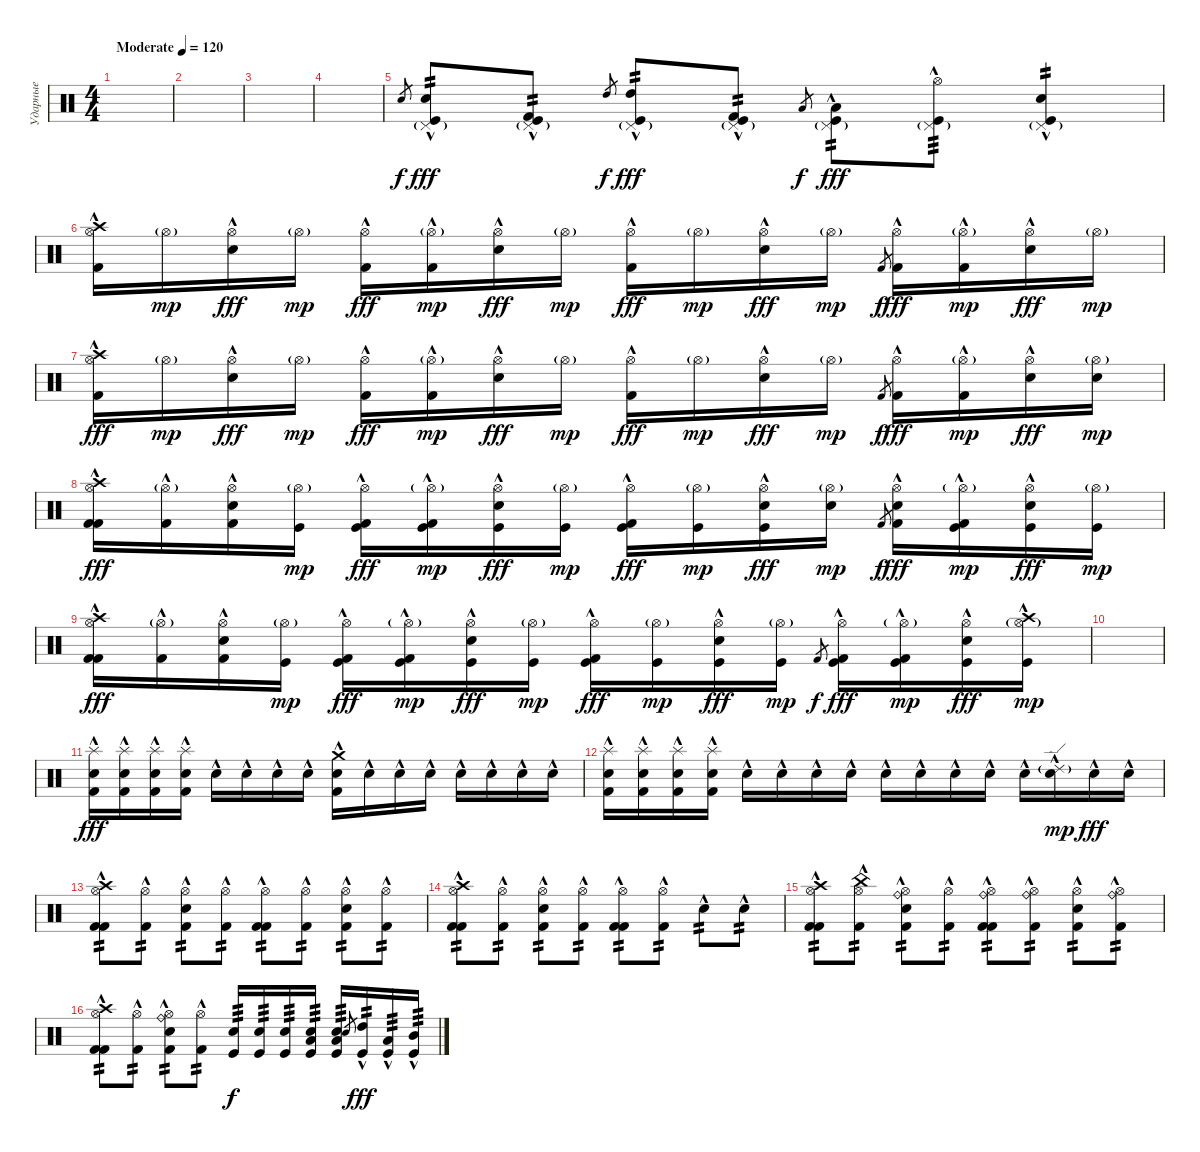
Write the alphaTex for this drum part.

\track ("Ударные" "Ударные") {instrument percussion}
\staff {score}
\articulation defaults
\ts (4 4)
\tempo (120 "Moderate")
\clef neutral
\ks c
|
|
|
|
"Electric Snare (hit)".8{gr} ("Pedal Hi-Hat (hit)"{g} "Electric Snare (hit)"{hac} "Kick (hit)").8{tp 2 dy fff} ("Pedal Hi-Hat (hit)"{g} "Kick (hit) 2"{hac} "Kick (hit)").8{tp 2} "High Tom (hit)".8{gr dy f} ("Pedal Hi-Hat (hit)"{g} "High Tom (hit)"{hac} "Kick (hit)").8{tp 2 dy fff} ("Pedal Hi-Hat (hit)"{g} "Kick (hit) 2"{hac} "Kick (hit)").8{tp 2} "Low Tom (hit)".8{gr dy f} ("Pedal Hi-Hat (hit)"{g} "Low Tom (hit)"{hac} "Kick (hit)").8{tp 2 dy fff} ("Pedal Hi-Hat (hit)"{g} "Hi-Hat (open)"{hac} "Kick (hit)").8{tp 3} ("Pedal Hi-Hat (hit)"{g} "Electric Snare (hit)"{hac} "Kick (hit)").4{tp 2} |
("Kick (hit) 2"{hac} "Crash high (hit)"{hac} "Hi-Hat (open)"{hac}).16 "Hi-Hat (open)"{g}.16{dy mp} ("Electric Snare (hit)"{hac} "Hi-Hat (open)"{hac}).16{dy fff} "Hi-Hat (open)"{g}.16{dy mp} ("Kick (hit) 2"{hac} "Hi-Hat (open)"{hac}).16{dy fff} ("Kick (hit) 2"{hac} "Hi-Hat (open)"{g}).16{dy mp} ("Electric Snare (hit)"{hac} "Hi-Hat (open)"{hac}).16{dy fff} "Hi-Hat (open)"{g}.16{dy mp} ("Kick (hit) 2"{hac} "Hi-Hat (open)"{hac}).16{dy fff} "Hi-Hat (open)"{g}.16{dy mp} ("Electric Snare (hit)"{hac} "Hi-Hat (open)"{hac}).16{dy fff} "Hi-Hat (open)"{g}.16{dy mp} "Kick (hit) 2".8{gr dy f} ("Kick (hit) 2"{hac} "Hi-Hat (open)"{hac}).16{dy fff} ("Kick (hit) 2"{hac} "Hi-Hat (open)"{g}).16{dy mp} ("Electric Snare (hit)"{hac} "Hi-Hat (open)"{hac}).16{dy fff} "Hi-Hat (open)"{g}.16{dy mp} |
("Kick (hit) 2"{hac} "Crash high (hit)"{hac} "Hi-Hat (open)"{hac}).16{dy fff} "Hi-Hat (open)"{g}.16{dy mp} ("Electric Snare (hit)"{hac} "Hi-Hat (open)"{hac}).16{dy fff} "Hi-Hat (open)"{g}.16{dy mp} ("Kick (hit) 2"{hac} "Hi-Hat (open)"{hac}).16{dy fff} ("Kick (hit) 2"{hac} "Hi-Hat (open)"{g}).16{dy mp} ("Electric Snare (hit)"{hac} "Hi-Hat (open)"{hac}).16{dy fff} "Hi-Hat (open)"{g}.16{dy mp} ("Kick (hit) 2"{hac} "Hi-Hat (open)"{hac}).16{dy fff} "Hi-Hat (open)"{g}.16{dy mp} ("Electric Snare (hit)"{hac} "Hi-Hat (open)"{hac}).16{dy fff} "Hi-Hat (open)"{g}.16{dy mp} "Kick (hit) 2".8{gr dy f} ("Kick (hit) 2"{hac} "Hi-Hat (open)"{hac}).16{dy fff} ("Kick (hit) 2"{hac} "Hi-Hat (open)"{g}).16{dy mp} ("Electric Snare (hit)"{hac} "Hi-Hat (open)"{hac}).16{dy fff} ("Electric Snare (hit)" "Hi-Hat (open)"{g}).16{dy mp} |
("Kick (hit) 2"{hac} "Crash high (hit)"{hac} "Hi-Hat (open)"{hac} "Kick (hit) 2"{hac}).16{dy fff} ("Hi-Hat (open)"{g} "Kick (hit) 2"{hac}).16 ("Electric Snare (hit)"{hac} "Hi-Hat (open)"{hac} "Kick (hit) 2"{hac}).16 ("Hi-Hat (open)"{g} "Kick (hit)").16{dy mp} ("Kick (hit) 2"{hac} "Hi-Hat (open)"{hac} "Kick (hit)").16{dy fff} ("Kick (hit) 2"{hac} "Hi-Hat (open)"{g} "Kick (hit)").16{dy mp} ("Electric Snare (hit)"{hac} "Hi-Hat (open)"{hac} "Kick (hit)").16{dy fff} ("Hi-Hat (open)"{g} "Kick (hit)").16{dy mp} ("Kick (hit) 2"{hac} "Hi-Hat (open)"{hac} "Kick (hit)").16{dy fff} ("Hi-Hat (open)"{g} "Kick (hit)").16{dy mp} ("Electric Snare (hit)"{hac} "Hi-Hat (open)"{hac} "Kick (hit)").16{dy fff} ("Hi-Hat (open)"{g} "Snare (hit)").16{dy mp} "Kick (hit) 2".8{gr dy f} ("Kick (hit) 2"{hac} "Hi-Hat (open)"{hac} "Snare (hit)").16{dy fff} ("Kick (hit) 2"{hac} "Hi-Hat (open)"{g} "Kick (hit)").16{dy mp} ("Electric Snare (hit)"{hac} "Hi-Hat (open)"{hac} "Kick (hit)").16{dy fff} ("Hi-Hat (open)"{g} "Kick (hit)").16{dy mp} |
("Kick (hit) 2"{hac} "Crash high (hit)"{hac} "Hi-Hat (open)"{hac} "Kick (hit) 2"{hac}).16{dy fff} ("Hi-Hat (open)"{g} "Kick (hit) 2"{hac}).16 ("Electric Snare (hit)"{hac} "Hi-Hat (open)"{hac} "Kick (hit) 2"{hac}).16 ("Hi-Hat (open)"{g} "Kick (hit)").16{dy mp} ("Kick (hit) 2"{hac} "Hi-Hat (open)"{hac} "Kick (hit)").16{dy fff} ("Kick (hit) 2"{hac} "Hi-Hat (open)"{g} "Kick (hit)").16{dy mp} ("Electric Snare (hit)"{hac} "Hi-Hat (open)"{hac} "Kick (hit)").16{dy fff} ("Hi-Hat (open)"{g} "Kick (hit)").16{dy mp} ("Kick (hit) 2"{hac} "Hi-Hat (open)"{hac} "Kick (hit)").16{dy fff} ("Hi-Hat (open)"{g} "Kick (hit)").16{dy mp} ("Electric Snare (hit)"{hac} "Hi-Hat (open)"{hac} "Kick (hit)").16{dy fff} ("Hi-Hat (open)"{g} "Kick (hit)").16{dy mp} "Kick (hit) 2".8{gr dy f} ("Kick (hit) 2"{hac} "Hi-Hat (open)"{hac} "Kick (hit)").16{dy fff} ("Kick (hit) 2"{hac} "Hi-Hat (open)"{g} "Kick (hit)").16{dy mp} ("Electric Snare (hit)"{hac} "Hi-Hat (open)"{hac} "Kick (hit)").16{dy fff} ("Crash high (hit)"{hac} "Hi-Hat (open)"{g} "Kick (hit)").16{dy mp} |
|
("Splash (hit)"{hac} "Kick (hit) 2"{hac} "Electric Snare (hit)"{hac}).16{dy fff} ("Splash (hit)"{hac} "Kick (hit) 2"{hac} "Electric Snare (hit)"{hac}).16 ("Splash (hit)"{hac} "Kick (hit) 2"{hac} "Electric Snare (hit)"{hac}).16 ("Splash (hit)"{hac} "Kick (hit) 2"{hac} "Electric Snare (hit)"{hac}).16 "Snare (hit)"{hac}.16 "Snare (hit)"{hac}.16 "Snare (hit)"{hac}.16 "Snare (hit)"{hac}.16 ("Kick (hit) 2"{hac} "Electric Snare (hit)"{hac} "Crash medium (hit)"{hac}).16 "Snare (hit)"{hac}.16 "Snare (hit)"{hac}.16 "Snare (hit)"{hac}.16 "Snare (hit)"{hac}.16 "Snare (hit)"{hac}.16 "Snare (hit)"{hac}.16 "Snare (hit)"{hac}.16 |
("Splash (hit)"{hac} "Kick (hit) 2"{hac} "Electric Snare (hit)"{hac}).16 ("Splash (hit)"{hac} "Kick (hit) 2"{hac} "Electric Snare (hit)"{hac}).16 ("Splash (hit)"{hac} "Kick (hit) 2"{hac} "Electric Snare (hit)"{hac}).16 ("Splash (hit)"{hac} "Kick (hit) 2"{hac} "Electric Snare (hit)"{hac}).16 "Snare (hit)"{hac}.16 "Snare (hit)"{hac}.16 "Snare (hit)"{hac}.16 "Snare (hit)"{hac}.16 "Snare (hit)"{hac}.16 "Snare (hit)"{hac}.16 "Snare (hit)"{hac}.16 "Snare (hit)"{hac}.16 "Snare (hit)"{hac}.16 ("Snare (hit)"{hac} "Ride (edge) 2"{g}).16{dy mp} "Snare (hit)"{hac}.16{dy fff} "Snare (hit)"{hac}.16 |
("Kick (hit) 2"{hac} "Hi-Hat (open)"{hac} "Crash high (hit)"{hac} "Kick (hit) 2"{hac}).8{tp 2} ("Kick (hit) 2"{hac} "Hi-Hat (open)"{hac}).8{tp 2} ("Kick (hit) 2"{hac} "Hi-Hat (open)"{hac} "Electric Snare (hit)"{hac}).8{tp 2} ("Kick (hit) 2"{hac} "Hi-Hat (open)"{hac}).8{tp 2} ("Kick (hit) 2"{hac} "Hi-Hat (open)"{hac} "Kick (hit) 2"{hac}).8{tp 2} ("Kick (hit) 2"{hac} "Hi-Hat (open)"{hac}).8{tp 2} ("Kick (hit) 2"{hac} "Hi-Hat (open)"{hac} "Electric Snare (hit)"{hac}).8{tp 2} ("Kick (hit) 2"{hac} "Hi-Hat (open)"{hac}).8{tp 2} |
("Kick (hit) 2"{hac} "Hi-Hat (open)"{hac} "Crash high (hit)"{hac} "Kick (hit) 2"{hac}).8{tp 2} ("Kick (hit) 2"{hac} "Hi-Hat (open)"{hac}).8{tp 2} ("Kick (hit) 2"{hac} "Hi-Hat (open)"{hac} "Electric Snare (hit)"{hac}).8{tp 2} ("Kick (hit) 2"{hac} "Hi-Hat (open)"{hac}).8{tp 2} ("Kick (hit) 2"{hac} "Hi-Hat (open)"{hac} "Kick (hit) 2"{hac}).8{tp 2} ("Kick (hit) 2"{hac} "Hi-Hat (open)"{hac}).8{tp 2} "Electric Snare (hit)"{hac}.8{tp 2} "Electric Snare (hit)"{hac}.8{tp 2} |
("Kick (hit) 2"{hac} "Hi-Hat (open)"{hac} "Crash high (hit)"{hac} "Kick (hit) 2"{hac}).8{tp 2} ("Kick (hit) 2"{hac} "Hi-Hat (open)"{hac} "China (hit)"{hac}).8{tp 2} ("Kick (hit) 2"{hac} "Hi-Hat (open)"{hac} "Electric Snare (hit)"{hac} "Ride (bell)"{hac}).8{tp 2} ("Kick (hit) 2"{hac} "Hi-Hat (open)"{hac}).8{tp 2} ("Kick (hit) 2"{hac} "Hi-Hat (open)"{hac} "Kick (hit) 2"{hac} "Ride (bell)"{hac}).8{tp 2} ("Kick (hit) 2"{hac} "Hi-Hat (open)"{hac} "Ride (bell)"{hac}).8{tp 2} ("Kick (hit) 2"{hac} "Hi-Hat (open)"{hac} "Electric Snare (hit)"{hac}).8{tp 2} ("Kick (hit) 2"{hac} "Hi-Hat (open)"{hac} "Ride (bell)"{hac}).8{tp 2} |
("Kick (hit) 2"{hac} "Hi-Hat (open)"{hac} "Crash high (hit)"{hac} "Kick (hit) 2"{hac}).8{tp 2} ("Kick (hit) 2"{hac} "Hi-Hat (open)"{hac}).8{tp 2} ("Kick (hit) 2"{hac} "Hi-Hat (open)"{hac} "Electric Snare (hit)"{hac} "Ride (bell)"{hac}).8{tp 2} ("Kick (hit) 2"{hac} "Hi-Hat (open)"{hac}).8{tp 2} ("Electric Snare (hit)" "Kick (hit)").16{tp 3 dy f} ("Electric Snare (hit)" "Kick (hit)").16{tp 3} ("Electric Snare (hit)" "Kick (hit)").16{tp 3} ("Snare (hit)" "Low Tom (hit)" "Kick (hit)").16{tp 3} ("Snare (hit)" "Low Tom (hit)" "Kick (hit)").16{tp 3} "Electric Snare (hit)".8{gr} ("High Tom (hit)"{hac} "Kick (hit)").16{tp 2 dy fff} ("Low Tom (hit)"{hac} "Kick (hit)").16{tp 3} ("Mid Tom (hit)"{hac} "Kick (hit)").16{tp 3}
